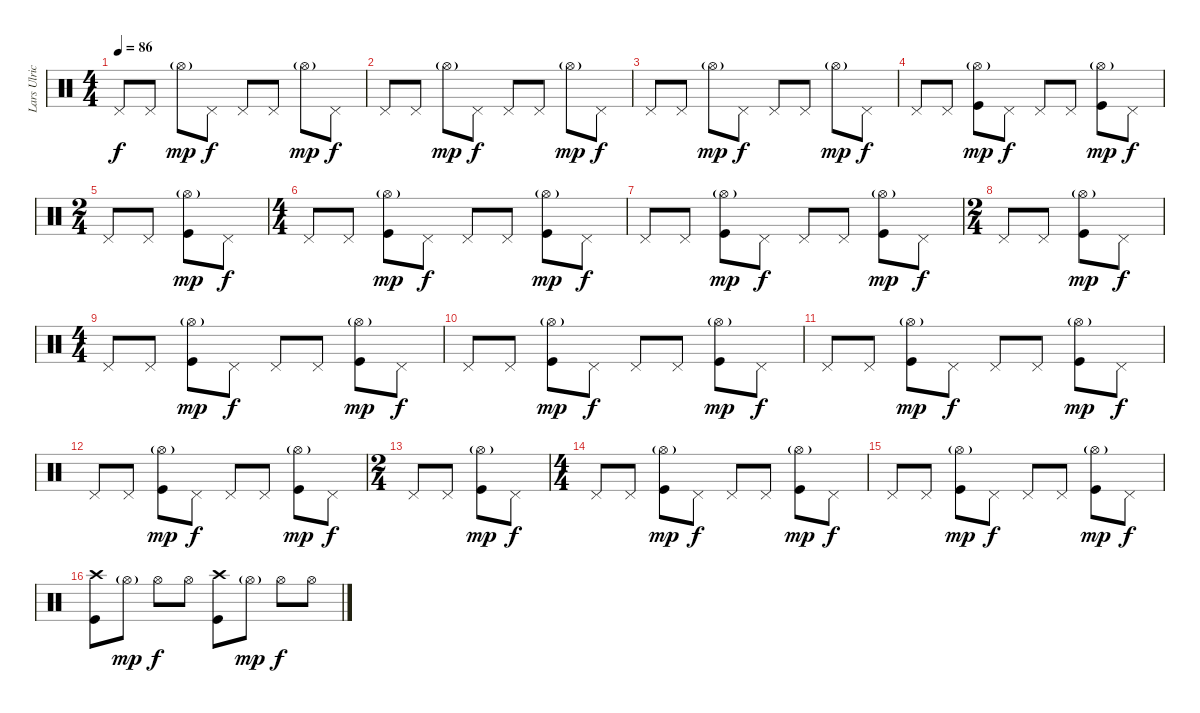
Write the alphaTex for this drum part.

\track ("Lars Ulrich" "Lars Ulric") {instrument percussion}
\staff {score}
\articulation defaults
\ts (4 4)
\tempo 86
\clef neutral
\ks c "Pedal Hi-Hat (hit)".8{dy f} "Pedal Hi-Hat (hit)".8 "Hi-Hat (open)"{g}.8{dy mp} "Pedal Hi-Hat (hit)".8{dy f} "Pedal Hi-Hat (hit)".8 "Pedal Hi-Hat (hit)".8 "Hi-Hat (open)"{g}.8{dy mp} "Pedal Hi-Hat (hit)".8{dy f}
|
"Pedal Hi-Hat (hit)".8 "Pedal Hi-Hat (hit)".8 "Hi-Hat (open)"{g}.8{dy mp} "Pedal Hi-Hat (hit)".8{dy f} "Pedal Hi-Hat (hit)".8 "Pedal Hi-Hat (hit)".8 "Hi-Hat (open)"{g}.8{dy mp} "Pedal Hi-Hat (hit)".8{dy f} |
"Pedal Hi-Hat (hit)".8 "Pedal Hi-Hat (hit)".8 "Hi-Hat (open)"{g}.8{dy mp} "Pedal Hi-Hat (hit)".8{dy f} "Pedal Hi-Hat (hit)".8 "Pedal Hi-Hat (hit)".8 "Hi-Hat (open)"{g}.8{dy mp} "Pedal Hi-Hat (hit)".8{dy f} |
"Pedal Hi-Hat (hit)".8 "Pedal Hi-Hat (hit)".8 ("Hi-Hat (open)"{g} "Kick (hit)").8{dy mp} "Pedal Hi-Hat (hit)".8{dy f} "Pedal Hi-Hat (hit)".8 "Pedal Hi-Hat (hit)".8 ("Hi-Hat (open)"{g} "Kick (hit)").8{dy mp} "Pedal Hi-Hat (hit)".8{dy f} |
\ts (2 4)
"Pedal Hi-Hat (hit)".8 "Pedal Hi-Hat (hit)".8 ("Hi-Hat (open)"{g} "Kick (hit)").8{dy mp} "Pedal Hi-Hat (hit)".8{dy f} |
\ts (4 4)
"Pedal Hi-Hat (hit)".8 "Pedal Hi-Hat (hit)".8 ("Hi-Hat (open)"{g} "Kick (hit)").8{dy mp} "Pedal Hi-Hat (hit)".8{dy f} "Pedal Hi-Hat (hit)".8 "Pedal Hi-Hat (hit)".8 ("Hi-Hat (open)"{g} "Kick (hit)").8{dy mp} "Pedal Hi-Hat (hit)".8{dy f} |
"Pedal Hi-Hat (hit)".8 "Pedal Hi-Hat (hit)".8 ("Hi-Hat (open)"{g} "Kick (hit)").8{dy mp} "Pedal Hi-Hat (hit)".8{dy f} "Pedal Hi-Hat (hit)".8 "Pedal Hi-Hat (hit)".8 ("Hi-Hat (open)"{g} "Kick (hit)").8{dy mp} "Pedal Hi-Hat (hit)".8{dy f} |
\ts (2 4)
"Pedal Hi-Hat (hit)".8 "Pedal Hi-Hat (hit)".8 ("Hi-Hat (open)"{g} "Kick (hit)").8{dy mp} "Pedal Hi-Hat (hit)".8{dy f} |
\ts (4 4)
"Pedal Hi-Hat (hit)".8 "Pedal Hi-Hat (hit)".8 ("Hi-Hat (open)"{g} "Kick (hit)").8{dy mp} "Pedal Hi-Hat (hit)".8{dy f} "Pedal Hi-Hat (hit)".8 "Pedal Hi-Hat (hit)".8 ("Hi-Hat (open)"{g} "Kick (hit)").8{dy mp} "Pedal Hi-Hat (hit)".8{dy f} |
"Pedal Hi-Hat (hit)".8 "Pedal Hi-Hat (hit)".8 ("Hi-Hat (open)"{g} "Kick (hit)").8{dy mp} "Pedal Hi-Hat (hit)".8{dy f} "Pedal Hi-Hat (hit)".8 "Pedal Hi-Hat (hit)".8 ("Hi-Hat (open)"{g} "Kick (hit)").8{dy mp} "Pedal Hi-Hat (hit)".8{dy f} |
"Pedal Hi-Hat (hit)".8 "Pedal Hi-Hat (hit)".8 ("Hi-Hat (open)"{g} "Kick (hit)").8{dy mp} "Pedal Hi-Hat (hit)".8{dy f} "Pedal Hi-Hat (hit)".8 "Pedal Hi-Hat (hit)".8 ("Hi-Hat (open)"{g} "Kick (hit)").8{dy mp} "Pedal Hi-Hat (hit)".8{dy f} |
"Pedal Hi-Hat (hit)".8 "Pedal Hi-Hat (hit)".8 ("Hi-Hat (open)"{g} "Kick (hit)").8{dy mp} "Pedal Hi-Hat (hit)".8{dy f} "Pedal Hi-Hat (hit)".8 "Pedal Hi-Hat (hit)".8 ("Hi-Hat (open)"{g} "Kick (hit)").8{dy mp} "Pedal Hi-Hat (hit)".8{dy f} |
\ts (2 4)
"Pedal Hi-Hat (hit)".8 "Pedal Hi-Hat (hit)".8 ("Hi-Hat (open)"{g} "Kick (hit)").8{dy mp} "Pedal Hi-Hat (hit)".8{dy f} |
\ts (4 4)
"Pedal Hi-Hat (hit)".8 "Pedal Hi-Hat (hit)".8 ("Hi-Hat (open)"{g} "Kick (hit)").8{dy mp} "Pedal Hi-Hat (hit)".8{dy f} "Pedal Hi-Hat (hit)".8 "Pedal Hi-Hat (hit)".8 ("Hi-Hat (open)"{g} "Kick (hit)").8{dy mp} "Pedal Hi-Hat (hit)".8{dy f} |
"Pedal Hi-Hat (hit)".8 "Pedal Hi-Hat (hit)".8 ("Hi-Hat (open)"{g} "Kick (hit)").8{dy mp} "Pedal Hi-Hat (hit)".8{dy f} "Pedal Hi-Hat (hit)".8 "Pedal Hi-Hat (hit)".8 ("Hi-Hat (open)"{g} "Kick (hit)").8{dy mp} "Pedal Hi-Hat (hit)".8{dy f} |
("Crash high (hit)" "Kick (hit)").8 "Hi-Hat (open)"{g}.8{dy mp} "Hi-Hat (open)".8{dy f} "Hi-Hat (open)".8 ("Crash high (hit)" "Kick (hit)").8 "Hi-Hat (open)"{g}.8{dy mp} "Hi-Hat (open)".8{dy f} "Hi-Hat (open)".8
